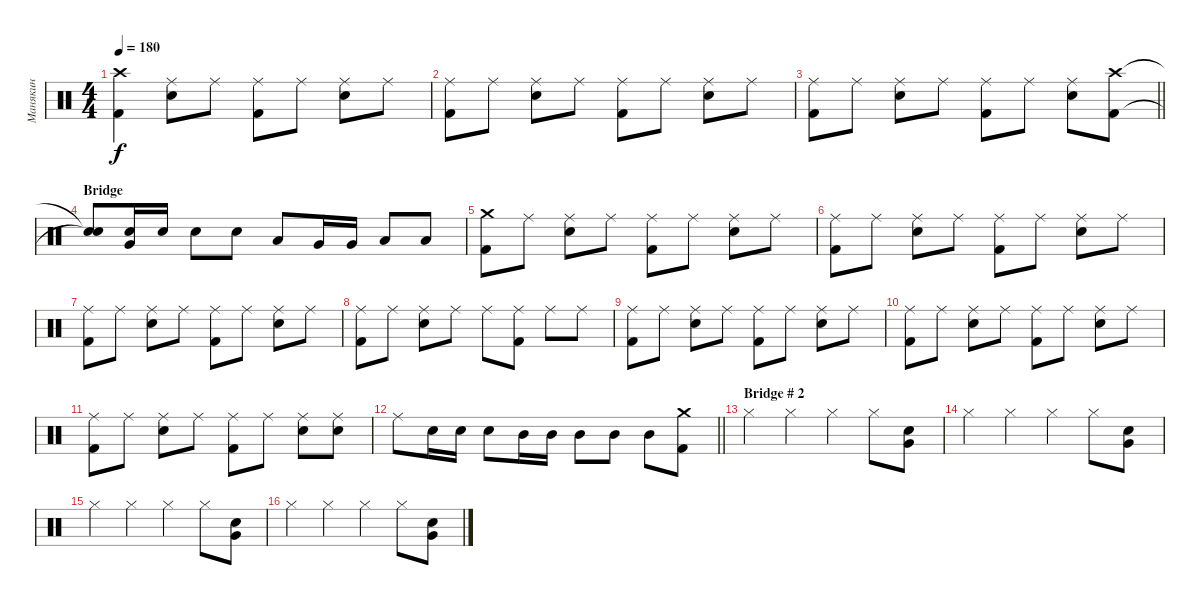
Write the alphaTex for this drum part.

\track ("Манякин" "Манякин") {instrument percussion}
\staff {score}
\articulation defaults
\ts (4 4)
\tempo 180
\clef neutral
\ks c
("Kick (hit) 2" "Crash high (hit)").4{dy f} ("Snare (hit) 2" "Ride (middle)").8 "Ride (middle)".8 ("Kick (hit) 2" "Ride (middle)").8 "Ride (middle)".8 ("Snare (hit) 2" "Ride (middle)").8 "Ride (middle)".8 |
("Kick (hit) 2" "Ride (middle)").8 "Ride (middle)".8 ("Snare (hit) 2" "Ride (middle)").8 "Ride (middle)".8 ("Kick (hit) 2" "Ride (middle)").8 "Ride (middle)".8 ("Snare (hit) 2" "Ride (middle)").8 "Ride (middle)".8 |
\barLineRight lightlight
("Kick (hit) 2" "Ride (middle)").8 "Ride (middle)".8 ("Snare (hit) 2" "Ride (middle)").8 "Ride (middle)".8 ("Kick (hit) 2" "Ride (middle)").8 "Ride (middle)".8 ("Snare (hit) 2" "Ride (middle)").8 ("Kick (hit) 2" "Crash high (hit)").8 |
\section ("" "Bridge")
("Snare (hit)"{t} "Snare (hit)"{t}).8 ("Very Low Tom (hit)" "Snare (hit) 2").16 "Snare (hit) 2".16 "Snare (hit) 2".8 "Snare (hit) 2".8 "Low Tom (hit)".8 "Very Low Tom (hit)".16 "Very Low Tom (hit)".16 "Low Floor Tom (hit)".8 "Low Floor Tom (hit)".8 |
("Kick (hit) 2" "Crash medium (hit)").8 "Ride (middle)".8 ("Snare (hit) 2" "Ride (middle)").8 "Ride (middle)".8 ("Kick (hit) 2" "Ride (middle)").8 "Ride (middle)".8 ("Snare (hit) 2" "Ride (middle)").8 "Ride (middle)".8 |
("Kick (hit) 2" "Ride (middle)").8 "Ride (middle)".8 ("Snare (hit) 2" "Ride (middle)").8 "Ride (middle)".8 ("Kick (hit) 2" "Ride (middle)").8 "Ride (middle)".8 ("Snare (hit) 2" "Ride (middle)").8 "Ride (middle)".8 |
("Kick (hit) 2" "Ride (middle)").8 "Ride (middle)".8 ("Snare (hit) 2" "Ride (middle)").8 "Ride (middle)".8 ("Kick (hit) 2" "Ride (middle)").8 "Ride (middle)".8 ("Snare (hit) 2" "Ride (middle)").8 "Ride (middle)".8 |
("Kick (hit) 2" "Ride (middle)").8 "Ride (middle)".8 ("Snare (hit) 2" "Ride (middle)").8 "Ride (middle)".8 "Ride (middle)".8 ("Kick (hit) 2" "Ride (middle)").8 "Ride (middle)".8 "Ride (middle)".8 |
("Kick (hit) 2" "Ride (middle)").8 "Ride (middle)".8 ("Snare (hit) 2" "Ride (middle)").8 "Ride (middle)".8 ("Kick (hit) 2" "Ride (middle)").8 "Ride (middle)".8 ("Snare (hit) 2" "Ride (middle)").8 "Ride (middle)".8 |
("Kick (hit) 2" "Ride (middle)").8 "Ride (middle)".8 ("Snare (hit) 2" "Ride (middle)").8 "Ride (middle)".8 ("Kick (hit) 2" "Ride (middle)").8 "Ride (middle)".8 ("Snare (hit) 2" "Ride (middle)").8 "Ride (middle)".8 |
("Kick (hit) 2" "Ride (middle)").8 "Ride (middle)".8 ("Snare (hit) 2" "Ride (middle)").8 "Ride (middle)".8 ("Kick (hit) 2" "Ride (middle)").8 "Ride (middle)".8 ("Snare (hit) 2" "Ride (middle)").8 ("Snare (hit) 2" "Ride (middle)").8 |
\barLineRight lightlight "Ride (middle)".8 "Snare (hit) 2".16 "Snare (hit) 2".16 "Snare (hit) 2".8 "Mid Tom (hit)".16 "Mid Tom (hit)".16 "Mid Tom (hit)".8 "Mid Tom (hit)".8 "Mid Tom (hit)".8
("Kick (hit) 2" "Crash medium (hit)").8 |
\section ("" "Bridge # 2")
"Hi-Hat (closed)".4 "Hi-Hat (closed)".4 "Hi-Hat (closed)".4 "Hi-Hat (closed)".8 ("Snare (hit) 2" "Very Low Tom (hit)").8 |
"Hi-Hat (closed)".4 "Hi-Hat (closed)".4 "Hi-Hat (closed)".4 "Hi-Hat (closed)".8 ("Snare (hit) 2" "Very Low Tom (hit)").8 |
"Hi-Hat (closed)".4 "Hi-Hat (closed)".4 "Hi-Hat (closed)".4 "Hi-Hat (closed)".8 ("Snare (hit) 2" "Very Low Tom (hit)").8 |
"Hi-Hat (closed)".4 "Hi-Hat (closed)".4 "Hi-Hat (closed)".4 "Hi-Hat (closed)".8 ("Snare (hit) 2" "Very Low Tom (hit)").8
